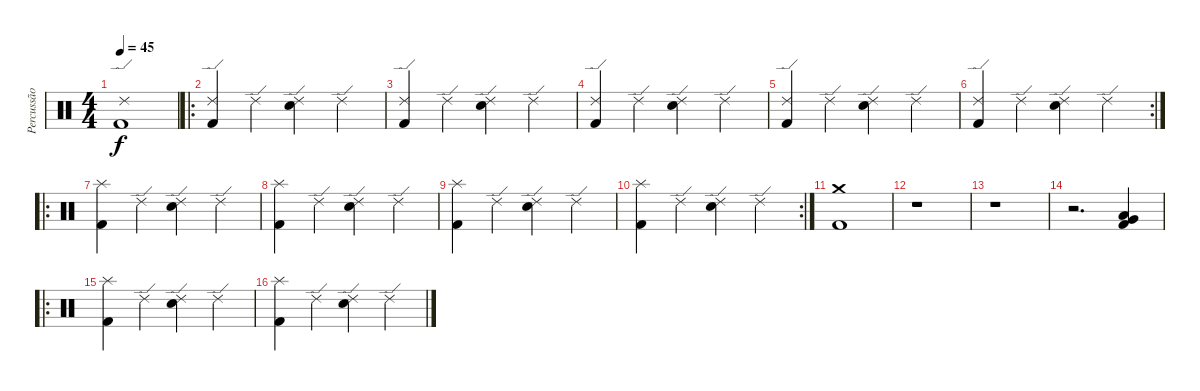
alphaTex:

\track ("Percussão" "Percussão") {instrument percussion}
\staff {score}
\articulation defaults
\ts (4 4)
\tempo 45
\clef neutral
\ks c
("Ride (edge) 2" "Kick (hit) 2").1{dy f} |
\ro
("Ride (edge) 2" "Kick (hit) 2").4 "Ride (edge) 2".4 ("Ride (edge) 2" "Snare (hit) 2").4 "Ride (edge) 2".4 |
("Ride (edge) 2" "Kick (hit) 2").4 "Ride (edge) 2".4 ("Ride (edge) 2" "Snare (hit) 2").4 "Ride (edge) 2".4 |
("Ride (edge) 2" "Kick (hit) 2").4 "Ride (edge) 2".4 ("Ride (edge) 2" "Snare (hit) 2").4 "Ride (edge) 2".4 |
("Ride (edge) 2" "Kick (hit) 2").4 "Ride (edge) 2".4 ("Ride (edge) 2" "Snare (hit) 2").4 "Ride (edge) 2".4 |
\rc 2
("Ride (edge) 2" "Kick (hit) 2").4 "Ride (edge) 2".4 ("Ride (edge) 2" "Snare (hit) 2").4 "Ride (edge) 2".4 |
\ro
("Splash (hit)" "Kick (hit) 2").4 "Ride (edge) 2".4 ("Ride (edge) 2" "Snare (hit) 2").4 "Ride (edge) 2".4 |
("Splash (hit)" "Kick (hit) 2").4 "Ride (edge) 2".4 ("Ride (edge) 2" "Snare (hit) 2").4 "Ride (edge) 2".4 |
("Splash (hit)" "Kick (hit) 2").4 "Ride (edge) 2".4 ("Ride (edge) 2" "Snare (hit) 2").4 "Ride (edge) 2".4 |
\rc 2
("Splash (hit)" "Kick (hit) 2").4 "Ride (edge) 2".4 ("Ride (edge) 2" "Snare (hit) 2").4 "Ride (edge) 2".4 |
("Crash medium (hit)" "Kick (hit) 2").1 |
r.1 |
r.1 |
r.2{d} ("Low Tom (hit)" "Very Low Tom (hit)" "Kick (hit) 2").4 |
\ro
("Splash (hit)" "Kick (hit) 2").4 "Ride (edge) 2".4 ("Ride (edge) 2" "Snare (hit) 2").4 "Ride (edge) 2".4 |
("Splash (hit)" "Kick (hit) 2").4 "Ride (edge) 2".4 ("Ride (edge) 2" "Snare (hit) 2").4 "Ride (edge) 2".4
